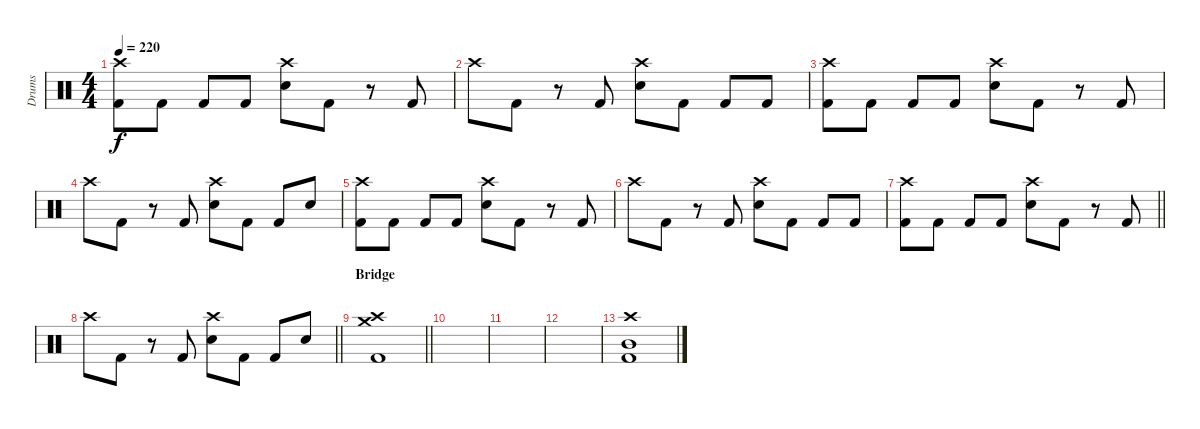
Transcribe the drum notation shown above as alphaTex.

\track ("Drums" "Drums") {instrument percussion}
\staff {score}
\articulation defaults
\ts (4 4)
\tempo 220
\clef neutral
\ks c
("Kick (hit) 2" "Crash high (hit)").8{dy f} "Kick (hit) 2".8 "Kick (hit) 2".8 "Kick (hit) 2".8 ("Electric Snare (hit)" "Crash high (hit)").8 "Kick (hit) 2".8 r.8 "Kick (hit) 2".8 |
"Crash high (hit)".8 "Kick (hit) 2".8 r.8 "Kick (hit) 2".8 ("Electric Snare (hit)" "Crash high (hit)").8 "Kick (hit) 2".8 "Kick (hit) 2".8 "Kick (hit) 2".8 |
("Kick (hit) 2" "Crash high (hit)").8 "Kick (hit) 2".8 "Kick (hit) 2".8 "Kick (hit) 2".8 ("Electric Snare (hit)" "Crash high (hit)").8 "Kick (hit) 2".8 r.8 "Kick (hit) 2".8 |
"Crash high (hit)".8 "Kick (hit) 2".8 r.8 "Kick (hit) 2".8 ("Electric Snare (hit)" "Crash high (hit)").8 "Kick (hit) 2".8 "Kick (hit) 2".8 "Electric Snare (hit)".8 |
("Kick (hit) 2" "Crash high (hit)").8 "Kick (hit) 2".8 "Kick (hit) 2".8 "Kick (hit) 2".8 ("Electric Snare (hit)" "Crash high (hit)").8 "Kick (hit) 2".8 r.8 "Kick (hit) 2".8 |
"Crash high (hit)".8 "Kick (hit) 2".8 r.8 "Kick (hit) 2".8 ("Electric Snare (hit)" "Crash high (hit)").8 "Kick (hit) 2".8 "Kick (hit) 2".8 "Kick (hit) 2".8 |
\barLineRight lightlight
("Kick (hit) 2" "Crash high (hit)").8 "Kick (hit) 2".8 "Kick (hit) 2".8 "Kick (hit) 2".8 ("Electric Snare (hit)" "Crash high (hit)").8 "Kick (hit) 2".8 r.8 "Kick (hit) 2".8 |
\barLineRight lightlight "Crash high (hit)".8 "Kick (hit) 2".8
r.8 "Kick (hit) 2".8 ("Electric Snare (hit)" "Crash high (hit)").8 "Kick (hit) 2".8 "Kick (hit) 2".8 "Electric Snare (hit)".8 |
\section ("" "Bridge")
\barLineRight lightlight
("Kick (hit) 2" "Crash high (hit)" "Crash medium (hit)").1 |
|
|
|
("Kick (hit) 2" "Mid Tom (hit)" "Crash high (hit)").1
